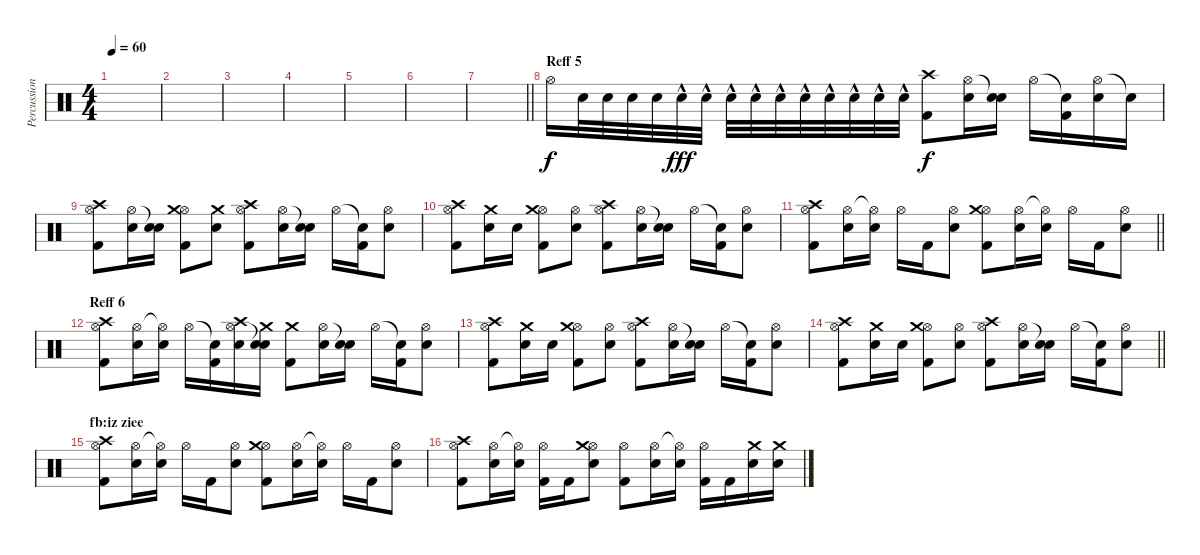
\track ("Percussion 1" "Percussion") {instrument percussion}
\staff {score}
\articulation defaults
\ts (4 4)
\tempo 60
\clef neutral
\ks c
|
|
|
|
|
|
\barLineRight lightlight
|
\section ("" "Reff 5")
"Hi-Hat (open)".16 "Electric Snare (hit)".32{volume 10 balance 8} "Electric Snare (hit)".32{volume 15} "Electric Snare (hit)".32 "Electric Snare (hit)".32 "Electric Snare (hit)"{hac}.32{dy fff} "Electric Snare (hit)"{hac}.32 "Electric Snare (hit)"{hac}.32 "Electric Snare (hit)"{hac}.32 "Electric Snare (hit)"{hac}.32 "Electric Snare (hit)"{hac}.32 "Electric Snare (hit)"{hac}.32 "Electric Snare (hit)"{hac}.32 "Electric Snare (hit)"{hac}.32 "Electric Snare (hit)"{hac}.32 ("Crash high (hit)" "Kick (hit) 2").8{dy f} ("Hi-Hat (open)" "Electric Snare (hit)").16 ("Snare (hit)"{t} "Electric Snare (hit)").16 "Hi-Hat (open)".16 ("Snare (hit)"{t} "Kick (hit) 2").16 ("Hi-Hat (open)" "Electric Snare (hit)").16 "Snare (hit)"{t}.16 |
("Hi-Hat (open)" "Crash high (hit)" "Kick (hit) 2").8 ("Hi-Hat (open)" "Electric Snare (hit)").16 ("Snare (hit)"{t} "Electric Snare (hit)").16 ("Hi-Hat (open)" "Crash medium (hit)" "Kick (hit) 2").8 ("Electric Snare (hit)" "Crash medium (hit)").8 ("Hi-Hat (open)" "Crash high (hit)" "Kick (hit) 2").8 ("Hi-Hat (open)" "Electric Snare (hit)").16 ("Snare (hit)"{t} "Electric Snare (hit)").16 "Hi-Hat (open)".16 ("Snare (hit)"{t} "Kick (hit) 2").16 ("Hi-Hat (open)" "Electric Snare (hit)").8 |
("Hi-Hat (open)" "Crash high (hit)" "Kick (hit) 2").8 ("Electric Snare (hit)" "Crash medium (hit)").16 "Electric Snare (hit)".16 ("Hi-Hat (open)" "Crash medium (hit)" "Kick (hit) 2").8 ("Hi-Hat (open)" "Electric Snare (hit)").8 ("Hi-Hat (open)" "Crash high (hit)" "Kick (hit) 2").8 ("Hi-Hat (open)" "Electric Snare (hit)").16 ("Snare (hit)"{t} "Electric Snare (hit)").16 "Hi-Hat (open)".16 ("Snare (hit)"{t} "Kick (hit) 2").16 ("Hi-Hat (open)" "Electric Snare (hit)").8 |
\barLineRight lightlight
("Hi-Hat (open)" "Crash high (hit)" "Kick (hit) 2").8 ("Hi-Hat (open)" "Electric Snare (hit)").16 ("Hi-Hat (open)"{t} "Electric Snare (hit)").16 "Hi-Hat (open)".16 "Kick (hit) 2".16 ("Hi-Hat (open)" "Electric Snare (hit)").8 ("Hi-Hat (open)" "Crash medium (hit)" "Kick (hit) 2").8 ("Hi-Hat (open)" "Electric Snare (hit)").16 ("Hi-Hat (open)"{t} "Electric Snare (hit)").16 "Hi-Hat (open)".16 "Kick (hit) 2".16 ("Hi-Hat (open)" "Electric Snare (hit)").8 |
\section ("" "Reff 6")
("Hi-Hat (open)" "Crash high (hit)" "Kick (hit) 2").8 ("Hi-Hat (open)" "Electric Snare (hit)").16 ("Hi-Hat (open)"{t} "Electric Snare (hit)").16 "Hi-Hat (open)".16 ("Snare (hit)"{t} "Kick (hit) 2").16 ("Hi-Hat (open)" "Electric Snare (hit)" "Crash high (hit)").16 ("Snare (hit)"{t} "Electric Snare (hit)" "Crash medium (hit)").16 ("Crash medium (hit)" "Kick (hit) 2").8 ("Hi-Hat (open)" "Electric Snare (hit)").16 ("Snare (hit)"{t} "Electric Snare (hit)").16 "Hi-Hat (open)".16 ("Snare (hit)"{t} "Kick (hit) 2").16 ("Hi-Hat (open)" "Electric Snare (hit)").8 |
("Hi-Hat (open)" "Crash high (hit)" "Kick (hit) 2").8 ("Electric Snare (hit)" "Crash medium (hit)").16 "Electric Snare (hit)".16 ("Hi-Hat (open)" "Crash medium (hit)" "Kick (hit) 2").8 ("Hi-Hat (open)" "Electric Snare (hit)").8 ("Hi-Hat (open)" "Crash high (hit)" "Kick (hit) 2").8 ("Hi-Hat (open)" "Electric Snare (hit)").16 ("Snare (hit)"{t} "Electric Snare (hit)").16 "Hi-Hat (open)".16 ("Snare (hit)"{t} "Kick (hit) 2").16 ("Hi-Hat (open)" "Electric Snare (hit)").8 |
\barLineRight lightlight
("Hi-Hat (open)" "Crash high (hit)" "Kick (hit) 2").8 ("Electric Snare (hit)" "Crash medium (hit)").16 "Electric Snare (hit)".16 ("Hi-Hat (open)" "Crash medium (hit)" "Kick (hit) 2").8 ("Hi-Hat (open)" "Electric Snare (hit)").8 ("Hi-Hat (open)" "Crash high (hit)" "Kick (hit) 2").8 ("Hi-Hat (open)" "Electric Snare (hit)").16 ("Snare (hit)"{t} "Electric Snare (hit)").16 "Hi-Hat (open)".16 ("Snare (hit)"{t} "Kick (hit) 2").16 ("Hi-Hat (open)" "Electric Snare (hit)").8 |
\section ("" "fb:iz ziee")
("Hi-Hat (open)" "Crash high (hit)" "Kick (hit) 2").8 ("Hi-Hat (open)" "Electric Snare (hit)").16 ("Hi-Hat (open)"{t} "Electric Snare (hit)").16 "Hi-Hat (open)".16 "Kick (hit) 2".16 ("Hi-Hat (open)" "Electric Snare (hit)").8 ("Hi-Hat (open)" "Crash medium (hit)" "Kick (hit) 2").8 ("Hi-Hat (open)" "Electric Snare (hit)").16 ("Hi-Hat (open)"{t} "Electric Snare (hit)").16 "Hi-Hat (open)".16 "Kick (hit) 2".16 ("Hi-Hat (open)" "Electric Snare (hit)").8 |
("Hi-Hat (open)" "Crash high (hit)" "Kick (hit) 2").8 ("Hi-Hat (open)" "Electric Snare (hit)").16 ("Hi-Hat (open)"{t} "Electric Snare (hit)").16 ("Hi-Hat (open)" "Kick (hit) 2").16 "Kick (hit) 2".16 ("Hi-Hat (open)" "Electric Snare (hit)" "Crash medium (hit)").8 ("Hi-Hat (open)" "Kick (hit) 2").8 ("Hi-Hat (open)" "Electric Snare (hit)").16 ("Hi-Hat (open)"{t} "Electric Snare (hit)").16 ("Hi-Hat (open)" "Kick (hit) 2").16 "Kick (hit) 2".16 ("Electric Snare (hit)" "Crash medium (hit)").16 ("Electric Snare (hit)" "Crash medium (hit)").16
